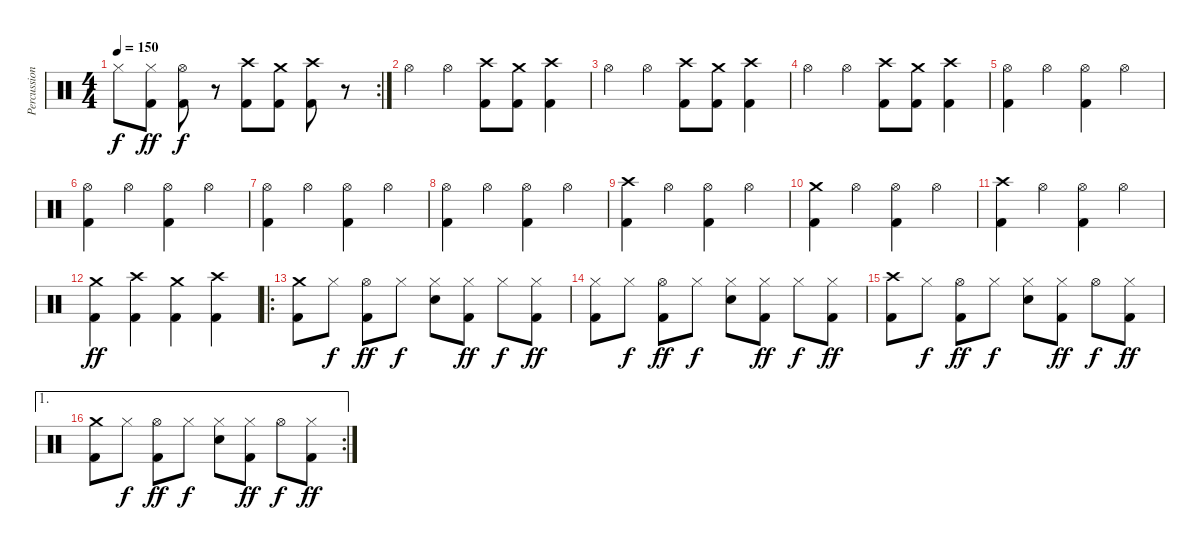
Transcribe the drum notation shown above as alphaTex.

\track ("Percussion" "Percussion") {instrument percussion}
\staff {score}
\articulation defaults
\rc 2
\ts (4 4)
\tempo 150
\clef neutral
\ks c "Hi-Hat (closed)".8{dy f}
("Hi-Hat (closed)" "Kick (hit) 2").8{dy ff} ("Hi-Hat (open)" "Kick (hit) 2").8{dy f} r.8 ("Crash high (hit)" "Kick (hit) 2").8 ("Crash medium (hit)" "Kick (hit) 2").8 ("Crash high (hit)" "Kick (hit) 2").8 r.8 |
"Hi-Hat (open)".4 "Hi-Hat (open)".4 ("Crash high (hit)" "Kick (hit) 2").8 ("Crash medium (hit)" "Kick (hit) 2").8 ("Crash high (hit)" "Kick (hit) 2").4 |
"Hi-Hat (open)".4 "Hi-Hat (open)".4 ("Crash high (hit)" "Kick (hit) 2").8 ("Crash medium (hit)" "Kick (hit) 2").8 ("Crash high (hit)" "Kick (hit) 2").4 |
"Hi-Hat (open)".4 "Hi-Hat (open)".4 ("Crash high (hit)" "Kick (hit) 2").8 ("Crash medium (hit)" "Kick (hit) 2").8 ("Crash high (hit)" "Kick (hit) 2").4 |
("Hi-Hat (open)" "Kick (hit) 2").4 "Hi-Hat (open)".4 ("Hi-Hat (open)" "Kick (hit) 2").4 "Hi-Hat (open)".4 |
("Hi-Hat (open)" "Kick (hit) 2").4 "Hi-Hat (open)".4 ("Hi-Hat (open)" "Kick (hit) 2").4 "Hi-Hat (open)".4 |
("Hi-Hat (open)" "Kick (hit) 2").4 "Hi-Hat (open)".4 ("Hi-Hat (open)" "Kick (hit) 2").4 "Hi-Hat (open)".4 |
("Hi-Hat (open)" "Kick (hit) 2").4 "Hi-Hat (open)".4 ("Hi-Hat (open)" "Kick (hit) 2").4 "Hi-Hat (open)".4 |
("Crash high (hit)" "Kick (hit) 2").4 "Hi-Hat (open)".4 ("Hi-Hat (open)" "Kick (hit) 2").4 "Hi-Hat (open)".4 |
("Crash medium (hit)" "Kick (hit) 2").4 "Hi-Hat (open)".4 ("Hi-Hat (open)" "Kick (hit) 2").4 "Hi-Hat (open)".4 |
("Crash high (hit)" "Kick (hit) 2").4 "Hi-Hat (open)".4 ("Hi-Hat (open)" "Kick (hit) 2").4 "Hi-Hat (open)".4 |
("Crash medium (hit)" "Kick (hit) 2").4{dy ff} ("Crash high (hit)" "Kick (hit) 2").4 ("Crash medium (hit)" "Kick (hit) 2").4 ("Crash high (hit)" "Kick (hit) 2").4 |
\ro
("Crash medium (hit)" "Kick (hit) 2").8 "Hi-Hat (closed)".8{dy f} ("Hi-Hat (open)" "Kick (hit) 2").8{dy ff} "Hi-Hat (closed)".8{dy f} ("Hi-Hat (closed)" "Snare (hit) 2").8 ("Hi-Hat (closed)" "Kick (hit) 2").8{dy ff} "Hi-Hat (closed)".8{dy f} ("Hi-Hat (closed)" "Kick (hit) 2").8{dy ff} |
("Hi-Hat (closed)" "Kick (hit) 2").8 "Hi-Hat (closed)".8{dy f} ("Hi-Hat (open)" "Kick (hit) 2").8{dy ff} "Hi-Hat (closed)".8{dy f} ("Hi-Hat (closed)" "Snare (hit) 2").8 ("Hi-Hat (closed)" "Kick (hit) 2").8{dy ff} "Hi-Hat (closed)".8{dy f} ("Hi-Hat (closed)" "Kick (hit) 2").8{dy ff} |
("Crash high (hit)" "Kick (hit) 2").8 "Hi-Hat (closed)".8{dy f} ("Hi-Hat (open)" "Kick (hit) 2").8{dy ff} "Hi-Hat (closed)".8{dy f} ("Hi-Hat (closed)" "Snare (hit) 2").8 ("Hi-Hat (closed)" "Kick (hit) 2").8{dy ff} "Hi-Hat (open)".8{dy f} ("Hi-Hat (closed)" "Kick (hit) 2").8{dy ff} |
\ae 1
\rc 2
("Crash medium (hit)" "Kick (hit) 2").8 "Hi-Hat (closed)".8{dy f} ("Hi-Hat (open)" "Kick (hit) 2").8{dy ff} "Hi-Hat (closed)".8{dy f} ("Hi-Hat (closed)" "Snare (hit) 2").8 ("Hi-Hat (closed)" "Kick (hit) 2").8{dy ff} "Hi-Hat (open)".8{dy f} ("Hi-Hat (closed)" "Kick (hit) 2").8{dy ff}
